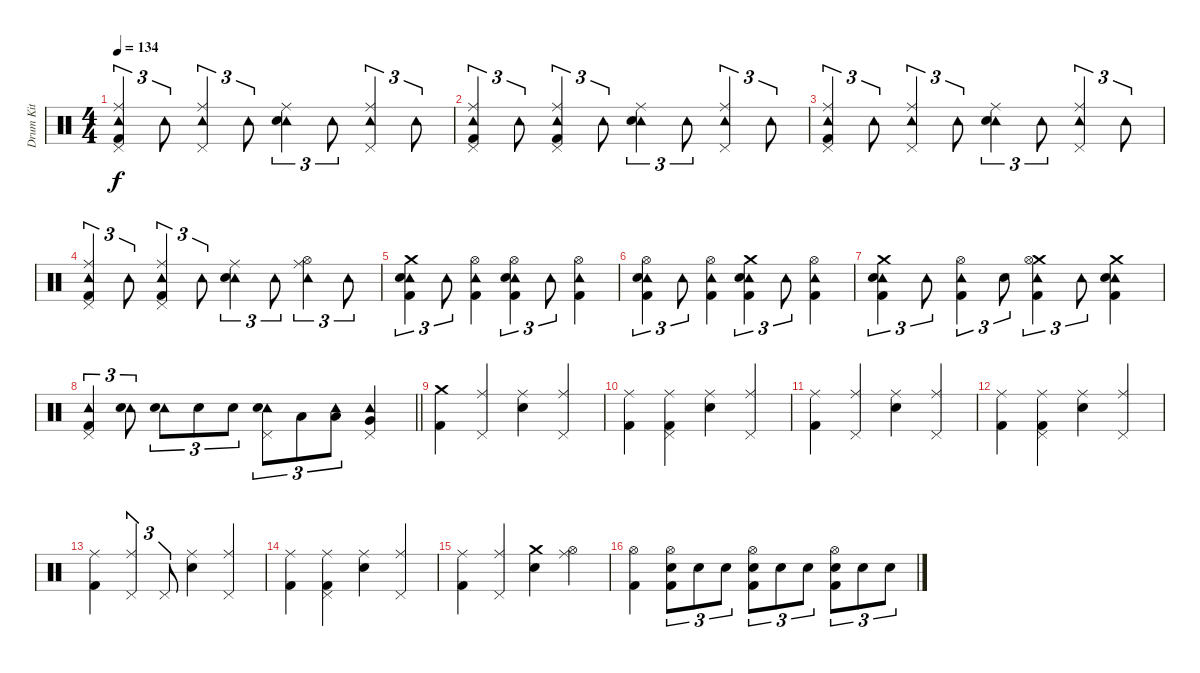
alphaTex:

\track ("Drum Kit" "Drum Kit") {instrument percussion}
\staff {score}
\articulation defaults
\ts (4 4)
\tempo 134
\clef neutral
\ks c
("Tambourine (hit)" "Ride (middle)" "Pedal Hi-Hat (hit)" "Kick (hit) 2").4{tu (3 2) dy f} "Tambourine (hit)".8{tu (3 2)} ("Tambourine (hit)" "Ride (middle)" "Pedal Hi-Hat (hit)").4{tu (3 2)} "Tambourine (hit)".8{tu (3 2)} ("Tambourine (hit)" "Ride (middle)" "Snare (hit) 2").4{tu (3 2)} "Tambourine (hit)".8{tu (3 2)} ("Tambourine (hit)" "Ride (middle)" "Pedal Hi-Hat (hit)").4{tu (3 2)} "Tambourine (hit)".8{tu (3 2)} |
("Tambourine (hit)" "Ride (middle)" "Pedal Hi-Hat (hit)" "Kick (hit) 2").4{tu (3 2)} "Tambourine (hit)".8{tu (3 2)} ("Tambourine (hit)" "Ride (middle)" "Pedal Hi-Hat (hit)" "Kick (hit) 2").4{tu (3 2)} "Tambourine (hit)".8{tu (3 2)} ("Tambourine (hit)" "Ride (middle)" "Snare (hit) 2").4{tu (3 2)} "Tambourine (hit)".8{tu (3 2)} ("Tambourine (hit)" "Ride (middle)" "Pedal Hi-Hat (hit)").4{tu (3 2)} "Tambourine (hit)".8{tu (3 2)} |
("Tambourine (hit)" "Ride (middle)" "Pedal Hi-Hat (hit)" "Kick (hit) 2").4{tu (3 2)} "Tambourine (hit)".8{tu (3 2)} ("Tambourine (hit)" "Ride (middle)" "Pedal Hi-Hat (hit)").4{tu (3 2)} "Tambourine (hit)".8{tu (3 2)} ("Tambourine (hit)" "Ride (middle)" "Snare (hit) 2").4{tu (3 2)} "Tambourine (hit)".8{tu (3 2)} ("Tambourine (hit)" "Ride (middle)" "Pedal Hi-Hat (hit)").4{tu (3 2)} "Tambourine (hit)".8{tu (3 2)} |
("Tambourine (hit)" "Ride (middle)" "Pedal Hi-Hat (hit)" "Kick (hit) 2").4{tu (3 2)} "Tambourine (hit)".8{tu (3 2)} ("Tambourine (hit)" "Ride (middle)" "Pedal Hi-Hat (hit)" "Kick (hit) 2").4{tu (3 2)} "Tambourine (hit)".8{tu (3 2)} ("Tambourine (hit)" "Ride (middle)" "Snare (hit) 2").4{tu (3 2)} "Tambourine (hit)".8{tu (3 2)} ("Tambourine (hit)" "Ride (middle)" "Hi-Hat (open)").4{tu (3 2)} "Tambourine (hit)".8{tu (3 2)} |
("Tambourine (hit)" "Crash medium (hit)" "Snare (hit) 2" "Kick (hit) 2").4{tu (3 2)} "Tambourine (hit)".8{tu (3 2)} ("Tambourine (hit)" "Hi-Hat (open)" "Kick (hit) 2").4 ("Tambourine (hit)" "Hi-Hat (open)" "Snare (hit) 2" "Kick (hit) 2").4{tu (3 2)} "Tambourine (hit)".8{tu (3 2)} ("Tambourine (hit)" "Hi-Hat (open)" "Kick (hit) 2").4 |
("Tambourine (hit)" "Hi-Hat (open)" "Snare (hit) 2" "Kick (hit) 2").4{tu (3 2)} "Tambourine (hit)".8{tu (3 2)} ("Tambourine (hit)" "Hi-Hat (open)" "Kick (hit) 2").4 ("Tambourine (hit)" "Crash medium (hit)" "Snare (hit) 2" "Kick (hit) 2").4{tu (3 2)} "Tambourine (hit)".8{tu (3 2)} ("Tambourine (hit)" "Hi-Hat (open)" "Kick (hit) 2").4 |
("Tambourine (hit)" "Crash medium (hit)" "Snare (hit) 2" "Kick (hit) 2").4{tu (3 2)} "Tambourine (hit)".8{tu (3 2)} ("Tambourine (hit)" "Hi-Hat (open)" "Kick (hit) 2").4{tu (3 2)} "Snare (hit) 2".8{tu (3 2)} ("Tambourine (hit)" "Crash medium (hit)" "Hi-Hat (open)" "Kick (hit) 2").4{tu (3 2)} "Tambourine (hit)".8{tu (3 2)} ("Tambourine (hit)" "Crash medium (hit)" "Snare (hit) 2" "Kick (hit) 2").4 |
\barLineRight lightlight
("Tambourine (hit)" "Pedal Hi-Hat (hit)" "Kick (hit) 2").4{tu (3 2)} ("Tambourine (hit)" "Snare (hit) 2").8{tu (3 2)} ("Tambourine (hit)" "Snare (hit) 2").8{tu (3 2)} "Snare (hit) 2".8{tu (3 2)} "Snare (hit) 2".8{tu (3 2)} ("Tambourine (hit)" "Pedal Hi-Hat (hit)" "Snare (hit) 2").8{tu (3 2)} "Low Tom (hit)".8{tu (3 2)} ("Tambourine (hit)" "Low Tom (hit)").8{tu (3 2)} ("Tambourine (hit)" "Pedal Hi-Hat (hit)" "Very Low Tom (hit)").4 |
("Crash medium (hit)" "Kick (hit) 2").4 ("Ride (middle)" "Pedal Hi-Hat (hit)").4 ("Ride (middle)" "Snare (hit) 2").4 ("Ride (middle)" "Pedal Hi-Hat (hit)").4 |
("Ride (middle)" "Kick (hit) 2").4 ("Ride (middle)" "Pedal Hi-Hat (hit)" "Kick (hit) 2").4 ("Ride (middle)" "Snare (hit) 2").4 ("Ride (middle)" "Pedal Hi-Hat (hit)").4 |
("Ride (middle)" "Kick (hit) 2").4 ("Ride (middle)" "Pedal Hi-Hat (hit)").4 ("Ride (middle)" "Snare (hit) 2").4 ("Ride (middle)" "Pedal Hi-Hat (hit)").4 |
("Ride (middle)" "Kick (hit) 2").4 ("Ride (middle)" "Pedal Hi-Hat (hit)" "Kick (hit) 2").4 ("Ride (middle)" "Snare (hit) 2").4 ("Ride (middle)" "Pedal Hi-Hat (hit)").4 |
("Ride (middle)" "Kick (hit) 2").4 ("Ride (middle)" "Pedal Hi-Hat (hit)").4{tu (3 2)} "Pedal Hi-Hat (hit)".8{tu (3 2)} ("Ride (middle)" "Snare (hit) 2").4 ("Ride (middle)" "Pedal Hi-Hat (hit)").4 |
("Ride (middle)" "Kick (hit) 2").4 ("Ride (middle)" "Pedal Hi-Hat (hit)" "Kick (hit) 2").4 ("Ride (middle)" "Snare (hit) 2").4 ("Ride (middle)" "Pedal Hi-Hat (hit)").4 |
("Ride (middle)" "Kick (hit) 2").4 ("Ride (middle)" "Pedal Hi-Hat (hit)").4 ("Crash medium (hit)" "Snare (hit) 2").4 ("Ride (middle)" "Hi-Hat (open)").4 |
("Hi-Hat (open)" "Kick (hit) 2").4 ("Hi-Hat (open)" "Snare (hit) 2" "Kick (hit) 2").8{tu (3 2)} "Snare (hit) 2".8{tu (3 2)} "Snare (hit) 2".8{tu (3 2)} ("Hi-Hat (open)" "Snare (hit) 2" "Kick (hit) 2").8{tu (3 2)} "Snare (hit) 2".8{tu (3 2)} "Snare (hit) 2".8{tu (3 2)} ("Hi-Hat (open)" "Snare (hit) 2" "Kick (hit) 2").8{tu (3 2)} "Snare (hit) 2".8{tu (3 2)} "Snare (hit) 2".8{tu (3 2)}
